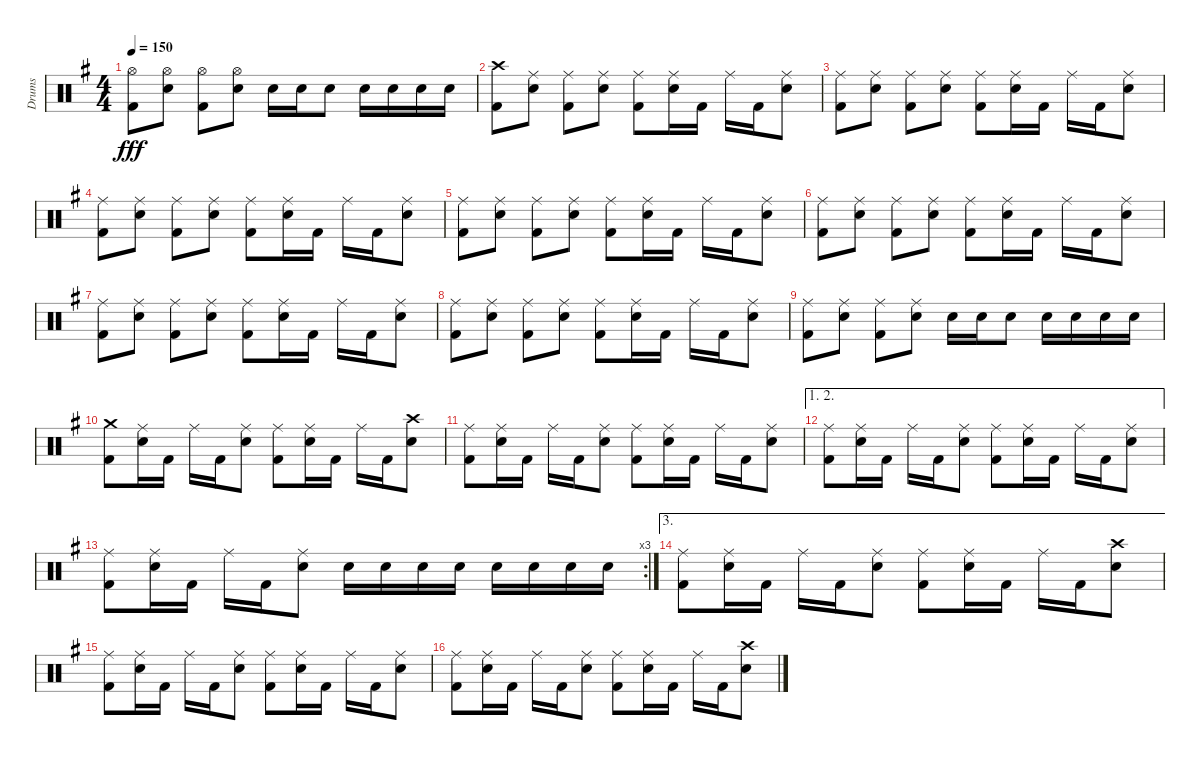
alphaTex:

\track ("Drums" "Drums") {instrument percussion}
\staff {score}
\articulation defaults
\ts (4 4)
\tempo 150
\clef neutral
\ks g
("Hi-Hat (open)" "Kick (hit) 2").8{dy fff} ("Hi-Hat (open)" "Electric Snare (hit)").8 ("Hi-Hat (open)" "Kick (hit) 2").8 ("Hi-Hat (open)" "Electric Snare (hit)").8 "Electric Snare (hit)".16 "Electric Snare (hit)".16 "Electric Snare (hit)".8 "Electric Snare (hit)".16 "Electric Snare (hit)".16 "Electric Snare (hit)".16 "Electric Snare (hit)".16 |
("Crash high (hit)" "Kick (hit) 2").8 ("Ride (middle)" "Electric Snare (hit)").8 ("Ride (middle)" "Kick (hit) 2").8 ("Ride (middle)" "Electric Snare (hit)").8 ("Ride (middle)" "Kick (hit) 2").8 ("Ride (middle)" "Electric Snare (hit)").16 "Kick (hit) 2".16 "Ride (middle)".16 "Kick (hit) 2".16 ("Ride (middle)" "Electric Snare (hit)").8 |
("Ride (middle)" "Kick (hit) 2").8 ("Ride (middle)" "Electric Snare (hit)").8 ("Ride (middle)" "Kick (hit) 2").8 ("Ride (middle)" "Electric Snare (hit)").8 ("Ride (middle)" "Kick (hit) 2").8 ("Ride (middle)" "Electric Snare (hit)").16 "Kick (hit) 2".16 "Ride (middle)".16 "Kick (hit) 2".16 ("Ride (middle)" "Electric Snare (hit)").8 |
("Ride (middle)" "Kick (hit) 2").8 ("Ride (middle)" "Electric Snare (hit)").8 ("Ride (middle)" "Kick (hit) 2").8 ("Ride (middle)" "Electric Snare (hit)").8 ("Ride (middle)" "Kick (hit) 2").8 ("Ride (middle)" "Electric Snare (hit)").16 "Kick (hit) 2".16 "Ride (middle)".16 "Kick (hit) 2".16 ("Ride (middle)" "Electric Snare (hit)").8 |
("Ride (middle)" "Kick (hit) 2").8 ("Ride (middle)" "Electric Snare (hit)").8 ("Ride (middle)" "Kick (hit) 2").8 ("Ride (middle)" "Electric Snare (hit)").8 ("Ride (middle)" "Kick (hit) 2").8 ("Ride (middle)" "Electric Snare (hit)").16 "Kick (hit) 2".16 "Ride (middle)".16 "Kick (hit) 2".16 ("Ride (middle)" "Electric Snare (hit)").8 |
("Ride (middle)" "Kick (hit) 2").8 ("Ride (middle)" "Electric Snare (hit)").8 ("Ride (middle)" "Kick (hit) 2").8 ("Ride (middle)" "Electric Snare (hit)").8 ("Ride (middle)" "Kick (hit) 2").8 ("Ride (middle)" "Electric Snare (hit)").16 "Kick (hit) 2".16 "Ride (middle)".16 "Kick (hit) 2".16 ("Ride (middle)" "Electric Snare (hit)").8 |
("Ride (middle)" "Kick (hit) 2").8 ("Ride (middle)" "Electric Snare (hit)").8 ("Ride (middle)" "Kick (hit) 2").8 ("Ride (middle)" "Electric Snare (hit)").8 ("Ride (middle)" "Kick (hit) 2").8 ("Ride (middle)" "Electric Snare (hit)").16 "Kick (hit) 2".16 "Ride (middle)".16 "Kick (hit) 2".16 ("Ride (middle)" "Electric Snare (hit)").8 |
("Ride (middle)" "Kick (hit) 2").8 ("Ride (middle)" "Electric Snare (hit)").8 ("Ride (middle)" "Kick (hit) 2").8 ("Ride (middle)" "Electric Snare (hit)").8 ("Ride (middle)" "Kick (hit) 2").8 ("Ride (middle)" "Electric Snare (hit)").16 "Kick (hit) 2".16 "Ride (middle)".16 "Kick (hit) 2".16 ("Ride (middle)" "Electric Snare (hit)").8 |
("Ride (middle)" "Kick (hit) 2").8 ("Ride (middle)" "Electric Snare (hit)").8 ("Ride (middle)" "Kick (hit) 2").8 ("Ride (middle)" "Electric Snare (hit)").8 "Electric Snare (hit)".16 "Electric Snare (hit)".16 "Electric Snare (hit)".8 "Electric Snare (hit)".16 "Electric Snare (hit)".16 "Electric Snare (hit)".16 "Electric Snare (hit)".16 |
("Crash medium (hit)" "Kick (hit) 2").8 ("Ride (middle)" "Electric Snare (hit)").16 "Kick (hit) 2".16 "Ride (middle)".16 "Kick (hit) 2".16 ("Ride (middle)" "Electric Snare (hit)").8 ("Ride (middle)" "Kick (hit) 2").8 ("Ride (middle)" "Electric Snare (hit)").16 "Kick (hit) 2".16 "Ride (middle)".16 "Kick (hit) 2".16 ("Crash high (hit)" "Electric Snare (hit)").8 |
("Ride (middle)" "Kick (hit) 2").8 ("Ride (middle)" "Electric Snare (hit)").16 "Kick (hit) 2".16 "Ride (middle)".16 "Kick (hit) 2".16 ("Ride (middle)" "Electric Snare (hit)").8 ("Ride (middle)" "Kick (hit) 2").8 ("Ride (middle)" "Electric Snare (hit)").16 "Kick (hit) 2".16 "Ride (middle)".16 "Kick (hit) 2".16 ("Ride (middle)" "Electric Snare (hit)").8 |
\ae (1 2)
("Ride (middle)" "Kick (hit) 2").8 ("Ride (middle)" "Electric Snare (hit)").16 "Kick (hit) 2".16 "Ride (middle)".16 "Kick (hit) 2".16 ("Ride (middle)" "Electric Snare (hit)").8 ("Ride (middle)" "Kick (hit) 2").8 ("Ride (middle)" "Electric Snare (hit)").16 "Kick (hit) 2".16 "Ride (middle)".16 "Kick (hit) 2".16 ("Ride (middle)" "Electric Snare (hit)").8 |
\rc 3
("Ride (middle)" "Kick (hit) 2").8 ("Ride (middle)" "Electric Snare (hit)").16 "Kick (hit) 2".16 "Ride (middle)".16 "Kick (hit) 2".16 ("Ride (middle)" "Electric Snare (hit)").8 "Electric Snare (hit)".16 "Electric Snare (hit)".16 "Electric Snare (hit)".16 "Electric Snare (hit)".16 "Electric Snare (hit)".16 "Electric Snare (hit)".16 "Electric Snare (hit)".16 "Electric Snare (hit)".16 |
\ae 3
("Ride (middle)" "Kick (hit) 2").8 ("Ride (middle)" "Electric Snare (hit)").16 "Kick (hit) 2".16 "Ride (middle)".16 "Kick (hit) 2".16 ("Ride (middle)" "Electric Snare (hit)").8 ("Ride (middle)" "Kick (hit) 2").8 ("Ride (middle)" "Electric Snare (hit)").16 "Kick (hit) 2".16 "Ride (middle)".16 "Kick (hit) 2".16 ("Crash high (hit)" "Electric Snare (hit)").8 |
("Ride (middle)" "Kick (hit) 2").8 ("Ride (middle)" "Electric Snare (hit)").16 "Kick (hit) 2".16 "Ride (middle)".16 "Kick (hit) 2".16 ("Ride (middle)" "Electric Snare (hit)").8 ("Ride (middle)" "Kick (hit) 2").8 ("Ride (middle)" "Electric Snare (hit)").16 "Kick (hit) 2".16 "Ride (middle)".16 "Kick (hit) 2".16 ("Ride (middle)" "Electric Snare (hit)").8 |
("Ride (middle)" "Kick (hit) 2").8 ("Ride (middle)" "Electric Snare (hit)").16 "Kick (hit) 2".16 "Ride (middle)".16 "Kick (hit) 2".16 ("Ride (middle)" "Electric Snare (hit)").8 ("Ride (middle)" "Kick (hit) 2").8 ("Ride (middle)" "Electric Snare (hit)").16 "Kick (hit) 2".16 "Ride (middle)".16 "Kick (hit) 2".16 ("Crash high (hit)" "Electric Snare (hit)").8
